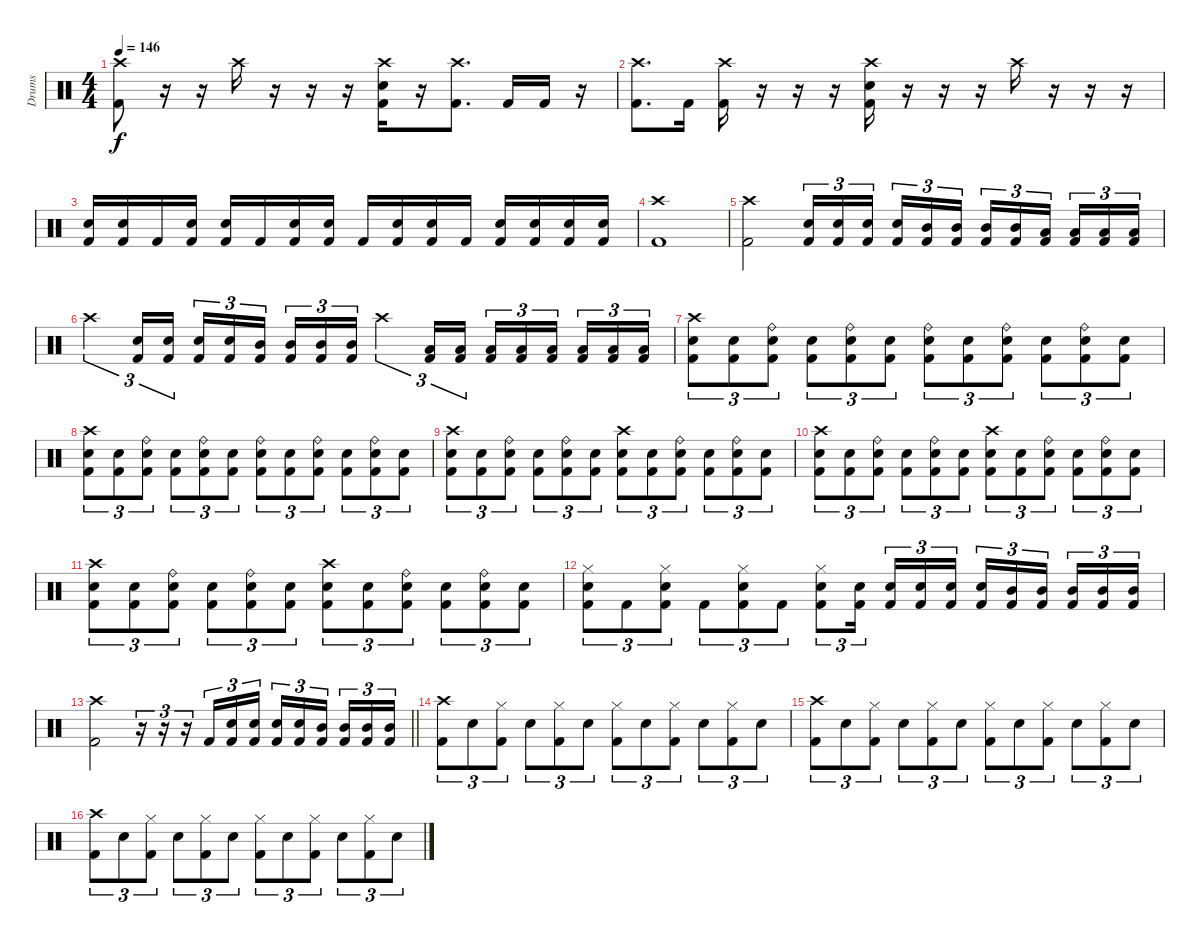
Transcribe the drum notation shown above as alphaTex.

\track ("Drums" "Drums") {instrument percussion}
\staff {score}
\articulation defaults
\ts (4 4)
\tempo 146
\clef neutral
\ks c
("Crash high (hit)" "Kick (hit) 2").8{dy f} r.16 r.16 "Crash high (hit)".16 r.16 r.16 r.16 ("Crash high (hit)" "Snare (hit) 2" "Kick (hit) 2").16 r.16 ("Crash high (hit)" "Kick (hit) 2").8{d} "Kick (hit) 2".16 "Kick (hit) 2".16 r.16 |
("Crash high (hit)" "Kick (hit) 2").8{d} "Kick (hit) 2".16 ("Crash high (hit)" "Kick (hit) 2").16 r.16 r.16 r.16 ("Crash high (hit)" "Snare (hit) 2" "Kick (hit) 2").16 r.16 r.16 r.16 "Crash high (hit)".16 r.16 r.16 r.16 |
("Snare (hit) 2" "Kick (hit) 2").16 ("Snare (hit) 2" "Kick (hit) 2").16 "Kick (hit) 2".16 ("Snare (hit) 2" "Kick (hit) 2").16 ("Snare (hit) 2" "Kick (hit) 2").16 "Kick (hit) 2".16 ("Snare (hit) 2" "Kick (hit) 2").16 ("Snare (hit) 2" "Kick (hit) 2").16 "Kick (hit) 2".16 ("Snare (hit) 2" "Kick (hit) 2").16 ("Snare (hit) 2" "Kick (hit) 2").16 "Kick (hit) 2".16 ("Snare (hit) 2" "Kick (hit) 2").16 ("Snare (hit) 2" "Kick (hit) 2").16 ("Snare (hit) 2" "Kick (hit) 2").16 ("Snare (hit) 2" "Kick (hit) 2").16 |
("Crash high (hit)" "Kick (hit) 2").1 |
("Crash high (hit)" "Kick (hit) 2").2 ("Snare (hit) 2" "Kick (hit) 2").16{tu (3 2)} ("Snare (hit) 2" "Kick (hit) 2").16{tu (3 2)} ("Snare (hit) 2" "Kick (hit) 2").16{tu (3 2)} ("Snare (hit) 2" "Kick (hit) 2").16{tu (3 2)} ("Mid Tom (hit)" "Kick (hit) 2").16{tu (3 2)} ("Mid Tom (hit)" "Kick (hit) 2").16{tu (3 2)} ("Mid Tom (hit)" "Kick (hit) 2").16{tu (3 2)} ("Mid Tom (hit)" "Kick (hit) 2").16{tu (3 2)} ("Low Tom (hit)" "Kick (hit) 2").16{tu (3 2)} ("Low Tom (hit)" "Kick (hit) 2").16{tu (3 2)} ("Low Tom (hit)" "Kick (hit) 2").16{tu (3 2)} ("Low Tom (hit)" "Kick (hit) 2").16{tu (3 2)} |
"Crash high (hit)".4{tu (3 2)} ("Snare (hit) 2" "Kick (hit) 2").16{tu (3 2)} ("Snare (hit) 2" "Kick (hit) 2").16{tu (3 2)} ("Snare (hit) 2" "Kick (hit) 2").16{tu (3 2)} ("Snare (hit) 2" "Kick (hit) 2").16{tu (3 2)} ("Mid Tom (hit)" "Kick (hit) 2").16{tu (3 2)} ("Mid Tom (hit)" "Kick (hit) 2").16{tu (3 2)} ("Mid Tom (hit)" "Kick (hit) 2").16{tu (3 2)} ("Mid Tom (hit)" "Kick (hit) 2").16{tu (3 2)} "Crash high (hit)".4{tu (3 2)} ("Low Tom (hit)" "Kick (hit) 2").16{tu (3 2)} ("Low Tom (hit)" "Kick (hit) 2").16{tu (3 2)} ("Low Tom (hit)" "Kick (hit) 2").16{tu (3 2)} ("Low Tom (hit)" "Kick (hit) 2").16{tu (3 2)} ("Low Floor Tom (hit)" "Kick (hit) 2").16{tu (3 2)} ("Low Floor Tom (hit)" "Kick (hit) 2").16{tu (3 2)} ("Low Floor Tom (hit)" "Kick (hit) 2").16{tu (3 2)} ("Low Floor Tom (hit)" "Kick (hit) 2").16{tu (3 2)} |
("Crash high (hit)" "Snare (hit) 2" "Kick (hit) 2").8{tu (3 2)} ("Snare (hit) 2" "Kick (hit) 2").8{tu (3 2)} ("Ride (bell)" "Snare (hit) 2" "Kick (hit) 2").8{tu (3 2)} ("Snare (hit) 2" "Kick (hit) 2").8{tu (3 2)} ("Ride (bell)" "Snare (hit) 2" "Kick (hit) 2").8{tu (3 2)} ("Snare (hit) 2" "Kick (hit) 2").8{tu (3 2)} ("Ride (bell)" "Snare (hit) 2" "Kick (hit) 2").8{tu (3 2)} ("Snare (hit) 2" "Kick (hit) 2").8{tu (3 2)} ("Ride (bell)" "Snare (hit) 2" "Kick (hit) 2").8{tu (3 2)} ("Snare (hit) 2" "Kick (hit) 2").8{tu (3 2)} ("Ride (bell)" "Snare (hit) 2" "Kick (hit) 2").8{tu (3 2)} ("Snare (hit) 2" "Kick (hit) 2").8{tu (3 2)} |
("Crash high (hit)" "Snare (hit) 2" "Kick (hit) 2").8{tu (3 2)} ("Snare (hit) 2" "Kick (hit) 2").8{tu (3 2)} ("Ride (bell)" "Snare (hit) 2" "Kick (hit) 2").8{tu (3 2)} ("Snare (hit) 2" "Kick (hit) 2").8{tu (3 2)} ("Ride (bell)" "Snare (hit) 2" "Kick (hit) 2").8{tu (3 2)} ("Snare (hit) 2" "Kick (hit) 2").8{tu (3 2)} ("Ride (bell)" "Snare (hit) 2" "Kick (hit) 2").8{tu (3 2)} ("Snare (hit) 2" "Kick (hit) 2").8{tu (3 2)} ("Ride (bell)" "Snare (hit) 2" "Kick (hit) 2").8{tu (3 2)} ("Snare (hit) 2" "Kick (hit) 2").8{tu (3 2)} ("Ride (bell)" "Snare (hit) 2" "Kick (hit) 2").8{tu (3 2)} ("Snare (hit) 2" "Kick (hit) 2").8{tu (3 2)} |
("Crash high (hit)" "Snare (hit) 2" "Kick (hit) 2").8{tu (3 2)} ("Snare (hit) 2" "Kick (hit) 2").8{tu (3 2)} ("Ride (bell)" "Snare (hit) 2" "Kick (hit) 2").8{tu (3 2)} ("Snare (hit) 2" "Kick (hit) 2").8{tu (3 2)} ("Ride (bell)" "Snare (hit) 2" "Kick (hit) 2").8{tu (3 2)} ("Snare (hit) 2" "Kick (hit) 2").8{tu (3 2)} ("Crash high (hit)" "Snare (hit) 2" "Kick (hit) 2").8{tu (3 2)} ("Snare (hit) 2" "Kick (hit) 2").8{tu (3 2)} ("Ride (bell)" "Snare (hit) 2" "Kick (hit) 2").8{tu (3 2)} ("Snare (hit) 2" "Kick (hit) 2").8{tu (3 2)} ("Ride (bell)" "Snare (hit) 2" "Kick (hit) 2").8{tu (3 2)} ("Snare (hit) 2" "Kick (hit) 2").8{tu (3 2)} |
("Crash high (hit)" "Snare (hit) 2" "Kick (hit) 2").8{tu (3 2)} ("Snare (hit) 2" "Kick (hit) 2").8{tu (3 2)} ("Ride (bell)" "Snare (hit) 2" "Kick (hit) 2").8{tu (3 2)} ("Snare (hit) 2" "Kick (hit) 2").8{tu (3 2)} ("Ride (bell)" "Snare (hit) 2" "Kick (hit) 2").8{tu (3 2)} ("Snare (hit) 2" "Kick (hit) 2").8{tu (3 2)} ("Crash high (hit)" "Snare (hit) 2" "Kick (hit) 2").8{tu (3 2)} ("Snare (hit) 2" "Kick (hit) 2").8{tu (3 2)} ("Ride (bell)" "Snare (hit) 2" "Kick (hit) 2").8{tu (3 2)} ("Snare (hit) 2" "Kick (hit) 2").8{tu (3 2)} ("Ride (bell)" "Snare (hit) 2" "Kick (hit) 2").8{tu (3 2)} ("Snare (hit) 2" "Kick (hit) 2").8{tu (3 2)} |
("Crash high (hit)" "Snare (hit) 2" "Kick (hit) 2").8{tu (3 2)} ("Snare (hit) 2" "Kick (hit) 2").8{tu (3 2)} ("Ride (bell)" "Snare (hit) 2" "Kick (hit) 2").8{tu (3 2)} ("Snare (hit) 2" "Kick (hit) 2").8{tu (3 2)} ("Ride (bell)" "Snare (hit) 2" "Kick (hit) 2").8{tu (3 2)} ("Snare (hit) 2" "Kick (hit) 2").8{tu (3 2)} ("Crash high (hit)" "Snare (hit) 2" "Kick (hit) 2").8{tu (3 2)} ("Snare (hit) 2" "Kick (hit) 2").8{tu (3 2)} ("Ride (bell)" "Snare (hit) 2" "Kick (hit) 2").8{tu (3 2)} ("Snare (hit) 2" "Kick (hit) 2").8{tu (3 2)} ("Ride (bell)" "Snare (hit) 2" "Kick (hit) 2").8{tu (3 2)} ("Snare (hit) 2" "Kick (hit) 2").8{tu (3 2)} |
("Hi-Hat (closed)" "Snare (hit) 2" "Kick (hit) 2").8{tu (3 2)} "Kick (hit) 2".8{tu (3 2)} ("Hi-Hat (closed)" "Snare (hit) 2" "Kick (hit) 2").8{tu (3 2)} "Kick (hit) 2".8{tu (3 2)} ("Hi-Hat (closed)" "Snare (hit) 2" "Kick (hit) 2").8{tu (3 2)} "Kick (hit) 2".8{tu (3 2)} ("Hi-Hat (closed)" "Snare (hit) 2" "Kick (hit) 2").8{tu (3 2)} ("Snare (hit) 2" "Kick (hit) 2").16{tu (3 2)} ("Snare (hit) 2" "Kick (hit) 2").16{tu (3 2)} ("Snare (hit) 2" "Kick (hit) 2").16{tu (3 2)} ("Snare (hit) 2" "Kick (hit) 2").16{tu (3 2)} ("Snare (hit) 2" "Kick (hit) 2").16{tu (3 2)} ("Mid Tom (hit)" "Kick (hit) 2").16{tu (3 2)} ("Mid Tom (hit)" "Kick (hit) 2").16{tu (3 2)} ("Mid Tom (hit)" "Kick (hit) 2").16{tu (3 2)} ("Mid Tom (hit)" "Kick (hit) 2").16{tu (3 2)} ("Mid Tom (hit)" "Kick (hit) 2").16{tu (3 2)} |
\barLineRight lightlight
("Crash high (hit)" "Kick (hit) 2").2 r.16{tu (3 2)} r.16{tu (3 2)} r.16{tu (3 2)} "Kick (hit) 2".16{tu (3 2)} ("Snare (hit) 2" "Kick (hit) 2").16{tu (3 2)} ("Snare (hit) 2" "Kick (hit) 2").16{tu (3 2)} ("Snare (hit) 2" "Kick (hit) 2").16{tu (3 2)} ("Snare (hit) 2" "Kick (hit) 2").16{tu (3 2)} ("Mid Tom (hit)" "Kick (hit) 2").16{tu (3 2)} ("Mid Tom (hit)" "Kick (hit) 2").16{tu (3 2)} ("Mid Tom (hit)" "Kick (hit) 2").16{tu (3 2)} ("Mid Tom (hit)" "Kick (hit) 2").16{tu (3 2)} |
("Crash high (hit)" "Kick (hit) 2").8{tu (3 2)} "Snare (hit) 2".8{tu (3 2)} ("Hi-Hat (closed)" "Kick (hit) 2").8{tu (3 2)} "Snare (hit) 2".8{tu (3 2)} ("Hi-Hat (closed)" "Kick (hit) 2").8{tu (3 2)} "Snare (hit) 2".8{tu (3 2)} ("Hi-Hat (closed)" "Kick (hit) 2").8{tu (3 2)} "Snare (hit) 2".8{tu (3 2)} ("Hi-Hat (closed)" "Kick (hit) 2").8{tu (3 2)} "Snare (hit) 2".8{tu (3 2)} ("Hi-Hat (closed)" "Kick (hit) 2").8{tu (3 2)} "Snare (hit) 2".8{tu (3 2)} |
("Crash high (hit)" "Kick (hit) 2").8{tu (3 2)} "Snare (hit) 2".8{tu (3 2)} ("Hi-Hat (closed)" "Kick (hit) 2").8{tu (3 2)} "Snare (hit) 2".8{tu (3 2)} ("Hi-Hat (closed)" "Kick (hit) 2").8{tu (3 2)} "Snare (hit) 2".8{tu (3 2)} ("Hi-Hat (closed)" "Kick (hit) 2").8{tu (3 2)} "Snare (hit) 2".8{tu (3 2)} ("Hi-Hat (closed)" "Kick (hit) 2").8{tu (3 2)} "Snare (hit) 2".8{tu (3 2)} ("Hi-Hat (closed)" "Kick (hit) 2").8{tu (3 2)} "Snare (hit) 2".8{tu (3 2)} |
("Crash high (hit)" "Kick (hit) 2").8{tu (3 2)} "Snare (hit) 2".8{tu (3 2)} ("Hi-Hat (closed)" "Kick (hit) 2").8{tu (3 2)} "Snare (hit) 2".8{tu (3 2)} ("Hi-Hat (closed)" "Kick (hit) 2").8{tu (3 2)} "Snare (hit) 2".8{tu (3 2)} ("Hi-Hat (closed)" "Kick (hit) 2").8{tu (3 2)} "Snare (hit) 2".8{tu (3 2)} ("Hi-Hat (closed)" "Kick (hit) 2").8{tu (3 2)} "Snare (hit) 2".8{tu (3 2)} ("Hi-Hat (closed)" "Kick (hit) 2").8{tu (3 2)} "Snare (hit) 2".8{tu (3 2)}
